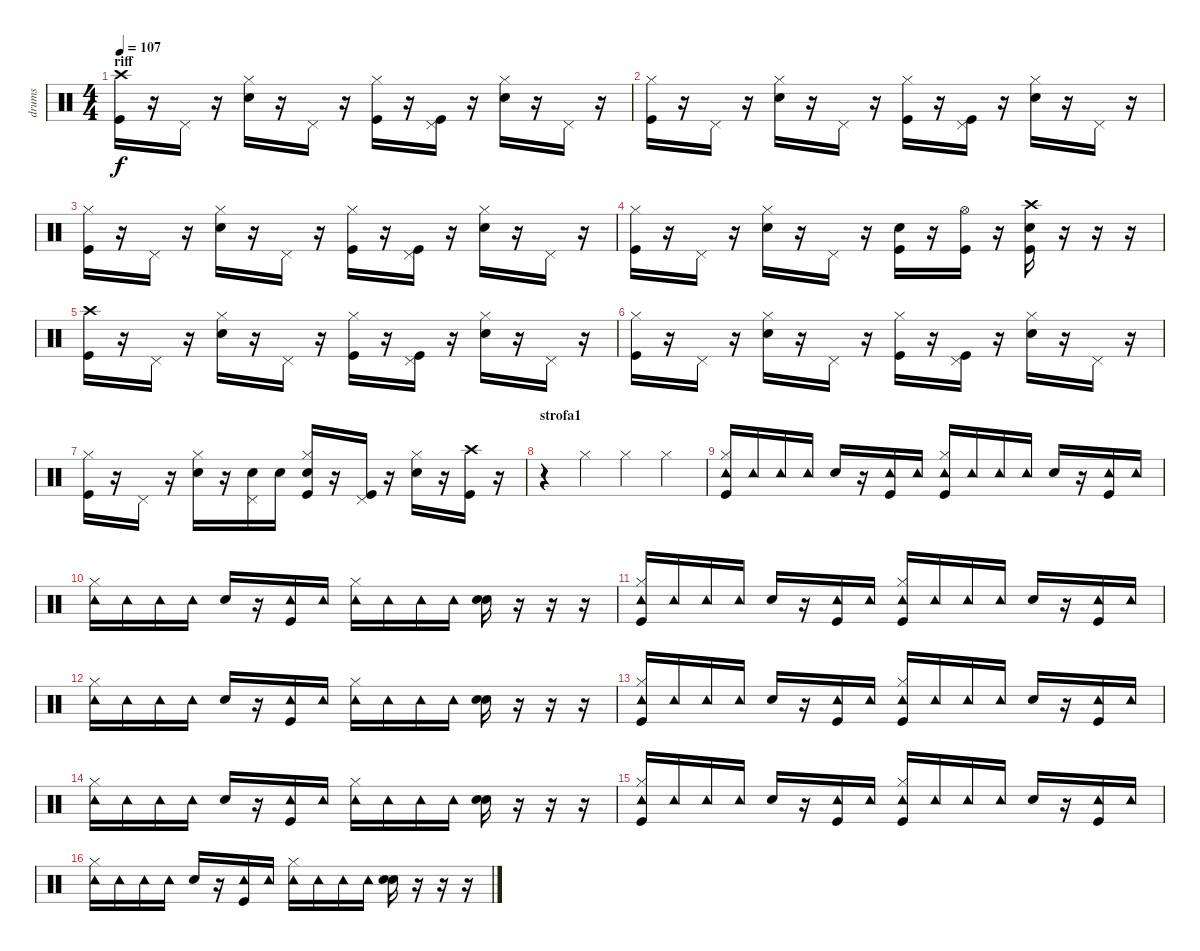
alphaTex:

\track ("drums" "drums") {instrument percussion}
\staff {score}
\articulation defaults
\ts (4 4)
\section ("" "riff")
\tempo 107
\clef neutral
\ks c
("Crash high (hit)" "Kick (hit)").16{dy f} r.16 "Pedal Hi-Hat (hit)".16 r.16 ("Hi-Hat (closed)" "Snare (hit) 2").16 r.16 "Pedal Hi-Hat (hit)".16 r.16 ("Hi-Hat (closed)" "Kick (hit)").16 r.16 ("Pedal Hi-Hat (hit)" "Kick (hit)").16 r.16 ("Hi-Hat (closed)" "Snare (hit) 2").16 r.16 "Pedal Hi-Hat (hit)".16 r.16 |
("Hi-Hat (closed)" "Kick (hit)").16 r.16 "Pedal Hi-Hat (hit)".16 r.16 ("Hi-Hat (closed)" "Snare (hit) 2").16 r.16 "Pedal Hi-Hat (hit)".16 r.16 ("Hi-Hat (closed)" "Kick (hit)").16 r.16 ("Pedal Hi-Hat (hit)" "Kick (hit)").16 r.16 ("Hi-Hat (closed)" "Snare (hit) 2").16 r.16 "Pedal Hi-Hat (hit)".16 r.16 |
("Hi-Hat (closed)" "Kick (hit)").16 r.16 "Pedal Hi-Hat (hit)".16 r.16 ("Hi-Hat (closed)" "Snare (hit) 2").16 r.16 "Pedal Hi-Hat (hit)".16 r.16 ("Hi-Hat (closed)" "Kick (hit)").16 r.16 ("Pedal Hi-Hat (hit)" "Kick (hit)").16 r.16 ("Hi-Hat (closed)" "Snare (hit) 2").16 r.16 "Pedal Hi-Hat (hit)".16 r.16 |
("Hi-Hat (closed)" "Kick (hit)").16 r.16 "Pedal Hi-Hat (hit)".16 r.16 ("Hi-Hat (closed)" "Snare (hit) 2").16 r.16 "Pedal Hi-Hat (hit)".16 r.16 ("Snare (hit) 2" "Kick (hit)").16 r.16 ("Hi-Hat (open)" "Kick (hit)").16 r.16 ("Crash high (hit)" "Snare (hit) 2" "Kick (hit)").16 r.16 r.16 r.16 |
("Crash high (hit)" "Kick (hit)").16 r.16 "Pedal Hi-Hat (hit)".16 r.16 ("Hi-Hat (closed)" "Snare (hit) 2").16 r.16 "Pedal Hi-Hat (hit)".16 r.16 ("Hi-Hat (closed)" "Kick (hit)").16 r.16 ("Pedal Hi-Hat (hit)" "Kick (hit)").16 r.16 ("Hi-Hat (closed)" "Snare (hit) 2").16 r.16 "Pedal Hi-Hat (hit)".16 r.16 |
("Hi-Hat (closed)" "Kick (hit)").16 r.16 "Pedal Hi-Hat (hit)".16 r.16 ("Hi-Hat (closed)" "Snare (hit) 2").16 r.16 "Pedal Hi-Hat (hit)".16 r.16 ("Hi-Hat (closed)" "Kick (hit)").16 r.16 ("Pedal Hi-Hat (hit)" "Kick (hit)").16 r.16 ("Hi-Hat (closed)" "Snare (hit) 2").16 r.16 "Pedal Hi-Hat (hit)".16 r.16 |
("Hi-Hat (closed)" "Kick (hit)").16 r.16 "Pedal Hi-Hat (hit)".16 r.16 ("Hi-Hat (closed)" "Snare (hit) 2").16 r.16 ("Pedal Hi-Hat (hit)" "Snare (hit) 2").16 "Snare (hit) 2".16 ("Hi-Hat (closed)" "Snare (hit) 2" "Kick (hit)").16 r.16 ("Pedal Hi-Hat (hit)" "Kick (hit)").16 r.16 ("Hi-Hat (closed)" "Snare (hit) 2").16 r.16 ("Crash high (hit)" "Kick (hit)").16 r.16 |
\section ("" "strofa1")
r.4 "Hi-Hat (closed)".4 "Hi-Hat (closed)".4 "Hi-Hat (closed)".4 |
("Hi-Hat (closed)" "Tambourine (hit)" "Kick (hit)").16 "Tambourine (hit)".16 "Tambourine (hit)".16 "Tambourine (hit)".16 "Snare (hit) 2".16 r.16 ("Tambourine (hit)" "Kick (hit)").16 "Tambourine (hit)".16 ("Hi-Hat (closed)" "Tambourine (hit)" "Kick (hit)").16 "Tambourine (hit)".16 "Tambourine (hit)".16 "Tambourine (hit)".16 "Snare (hit) 2".16 r.16 ("Tambourine (hit)" "Kick (hit)").16 "Tambourine (hit)".16 |
("Hi-Hat (closed)" "Tambourine (hit)").16 "Tambourine (hit)".16 "Tambourine (hit)".16 "Tambourine (hit)".16 "Snare (hit) 2".16 r.16 ("Tambourine (hit)" "Kick (hit)").16 "Tambourine (hit)".16 ("Hi-Hat (closed)" "Tambourine (hit)").16 "Tambourine (hit)".16 "Tambourine (hit)".16 "Tambourine (hit)".16 ("Snare (hit) 2" "Electric Snare (hit)").16 r.16 r.16 r.16 |
("Hi-Hat (closed)" "Tambourine (hit)" "Kick (hit)").16 "Tambourine (hit)".16 "Tambourine (hit)".16 "Tambourine (hit)".16 "Snare (hit) 2".16 r.16 ("Tambourine (hit)" "Kick (hit)").16 "Tambourine (hit)".16 ("Hi-Hat (closed)" "Tambourine (hit)" "Kick (hit)").16 "Tambourine (hit)".16 "Tambourine (hit)".16 "Tambourine (hit)".16 "Snare (hit) 2".16 r.16 ("Tambourine (hit)" "Kick (hit)").16 "Tambourine (hit)".16 |
("Hi-Hat (closed)" "Tambourine (hit)").16 "Tambourine (hit)".16 "Tambourine (hit)".16 "Tambourine (hit)".16 "Snare (hit) 2".16 r.16 ("Tambourine (hit)" "Kick (hit)").16 "Tambourine (hit)".16 ("Hi-Hat (closed)" "Tambourine (hit)").16 "Tambourine (hit)".16 "Tambourine (hit)".16 "Tambourine (hit)".16 ("Snare (hit) 2" "Electric Snare (hit)").16 r.16 r.16 r.16 |
("Hi-Hat (closed)" "Tambourine (hit)" "Kick (hit)").16 "Tambourine (hit)".16 "Tambourine (hit)".16 "Tambourine (hit)".16 "Snare (hit) 2".16 r.16 ("Tambourine (hit)" "Kick (hit)").16 "Tambourine (hit)".16 ("Hi-Hat (closed)" "Tambourine (hit)" "Kick (hit)").16 "Tambourine (hit)".16 "Tambourine (hit)".16 "Tambourine (hit)".16 "Snare (hit) 2".16 r.16 ("Tambourine (hit)" "Kick (hit)").16 "Tambourine (hit)".16 |
("Hi-Hat (closed)" "Tambourine (hit)").16 "Tambourine (hit)".16 "Tambourine (hit)".16 "Tambourine (hit)".16 "Snare (hit) 2".16 r.16 ("Tambourine (hit)" "Kick (hit)").16 "Tambourine (hit)".16 ("Hi-Hat (closed)" "Tambourine (hit)").16 "Tambourine (hit)".16 "Tambourine (hit)".16 "Tambourine (hit)".16 ("Snare (hit) 2" "Electric Snare (hit)").16 r.16 r.16 r.16 |
("Hi-Hat (closed)" "Tambourine (hit)" "Kick (hit)").16 "Tambourine (hit)".16 "Tambourine (hit)".16 "Tambourine (hit)".16 "Snare (hit) 2".16 r.16 ("Tambourine (hit)" "Kick (hit)").16 "Tambourine (hit)".16 ("Hi-Hat (closed)" "Tambourine (hit)" "Kick (hit)").16 "Tambourine (hit)".16 "Tambourine (hit)".16 "Tambourine (hit)".16 "Snare (hit) 2".16 r.16 ("Tambourine (hit)" "Kick (hit)").16 "Tambourine (hit)".16 |
("Hi-Hat (closed)" "Tambourine (hit)").16 "Tambourine (hit)".16 "Tambourine (hit)".16 "Tambourine (hit)".16 "Snare (hit) 2".16 r.16 ("Tambourine (hit)" "Kick (hit)").16 "Tambourine (hit)".16 ("Hi-Hat (closed)" "Tambourine (hit)").16 "Tambourine (hit)".16 "Tambourine (hit)".16 "Tambourine (hit)".16 ("Snare (hit) 2" "Electric Snare (hit)").16 r.16 r.16 r.16
